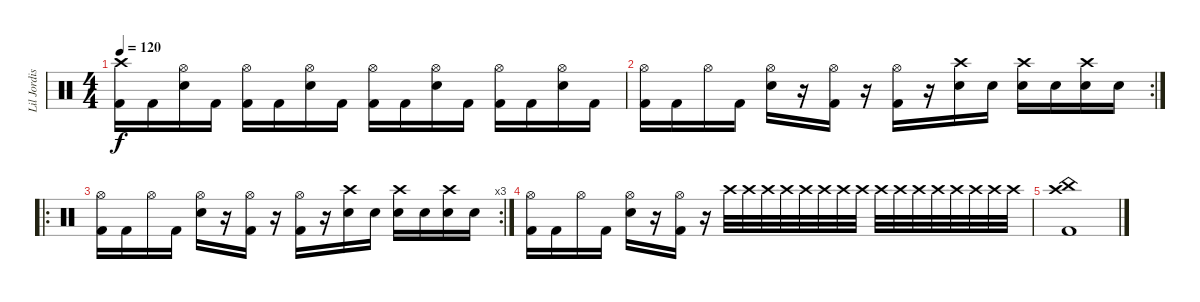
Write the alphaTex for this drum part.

\track ("Lil Jordison" "Lil Jordis") {instrument percussion}
\staff {score}
\articulation defaults
\ts (4 4)
\tempo 120
\clef neutral
\ks c
("Crash high (hit)" "Kick (hit) 2").16{dy f} "Kick (hit) 2".16 ("Hi-Hat (open)" "Electric Snare (hit)").16 "Kick (hit) 2".16 ("Hi-Hat (open)" "Kick (hit) 2").16 "Kick (hit) 2".16 ("Hi-Hat (open)" "Electric Snare (hit)").16 "Kick (hit) 2".16 ("Hi-Hat (open)" "Kick (hit) 2").16 "Kick (hit) 2".16 ("Hi-Hat (open)" "Electric Snare (hit)").16 "Kick (hit) 2".16 ("Hi-Hat (open)" "Kick (hit) 2").16 "Kick (hit) 2".16 ("Hi-Hat (open)" "Electric Snare (hit)").16 "Kick (hit) 2".16 |
\rc 2
("Hi-Hat (open)" "Kick (hit) 2").16 "Kick (hit) 2".16 "Hi-Hat (open)".16 "Kick (hit) 2".16 ("Hi-Hat (open)" "Electric Snare (hit)").16 r.16 ("Hi-Hat (open)" "Kick (hit) 2").16 r.16 ("Hi-Hat (open)" "Kick (hit) 2").16 r.16 ("Crash high (hit)" "Electric Snare (hit)").16 "Electric Snare (hit)".16 ("Crash high (hit)" "Electric Snare (hit)").16 "Electric Snare (hit)".16 ("Crash high (hit)" "Electric Snare (hit)").16 "Electric Snare (hit)".16 |
\ro
\rc 3
("Hi-Hat (open)" "Kick (hit) 2").16 "Kick (hit) 2".16 "Hi-Hat (open)".16 "Kick (hit) 2".16 ("Hi-Hat (open)" "Electric Snare (hit)").16 r.16 ("Hi-Hat (open)" "Kick (hit) 2").16 r.16 ("Hi-Hat (open)" "Kick (hit) 2").16 r.16 ("Crash high (hit)" "Electric Snare (hit)").16 "Electric Snare (hit)".16 ("Crash high (hit)" "Electric Snare (hit)").16 "Electric Snare (hit)".16 ("Crash high (hit)" "Electric Snare (hit)").16 "Electric Snare (hit)".16 |
("Hi-Hat (open)" "Kick (hit) 2").16 "Kick (hit) 2".16 "Hi-Hat (open)".16 "Kick (hit) 2".16 ("Hi-Hat (open)" "Electric Snare (hit)").16 r.16 ("Hi-Hat (open)" "Kick (hit) 2").16 r.16 "Crash high (hit)".32 "Crash high (hit)".32 "Crash high (hit)".32 "Crash high (hit)".32 "Crash high (hit)".32 "Crash high (hit)".32 "Crash high (hit)".32 "Crash high (hit)".32 "Crash high (hit)".32 "Crash high (hit)".32 "Crash high (hit)".32 "Crash high (hit)".32 "Crash high (hit)".32 "Crash high (hit)".32 "Crash high (hit)".32 "Crash high (hit)".32 |
("Crash high (hit)" "China (hit)" "Kick (hit) 2").1
